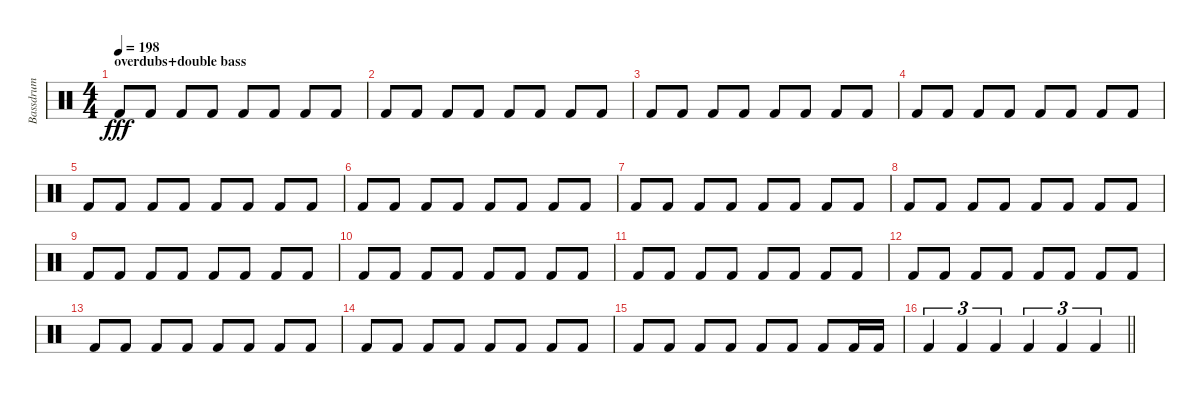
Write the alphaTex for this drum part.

\track ("Bassdrum" "Bassdrum") {instrument percussion}
\staff {score}
\articulation defaults
\ts (4 4)
\section ("" "overdubs+double bass")
\tempo 198
\clef neutral
\ks c "Kick (hit) 2".8{dy fff} "Kick (hit) 2".8 "Kick (hit) 2".8 "Kick (hit) 2".8 "Kick (hit) 2".8 "Kick (hit) 2".8 "Kick (hit) 2".8 "Kick (hit) 2".8
|
"Kick (hit) 2".8 "Kick (hit) 2".8 "Kick (hit) 2".8 "Kick (hit) 2".8 "Kick (hit) 2".8 "Kick (hit) 2".8 "Kick (hit) 2".8 "Kick (hit) 2".8 |
"Kick (hit) 2".8 "Kick (hit) 2".8 "Kick (hit) 2".8 "Kick (hit) 2".8 "Kick (hit) 2".8 "Kick (hit) 2".8 "Kick (hit) 2".8 "Kick (hit) 2".8 |
"Kick (hit) 2".8 "Kick (hit) 2".8 "Kick (hit) 2".8 "Kick (hit) 2".8 "Kick (hit) 2".8 "Kick (hit) 2".8 "Kick (hit) 2".8 "Kick (hit) 2".8 |
"Kick (hit) 2".8 "Kick (hit) 2".8 "Kick (hit) 2".8 "Kick (hit) 2".8 "Kick (hit) 2".8 "Kick (hit) 2".8 "Kick (hit) 2".8 "Kick (hit) 2".8 |
"Kick (hit) 2".8 "Kick (hit) 2".8 "Kick (hit) 2".8 "Kick (hit) 2".8 "Kick (hit) 2".8 "Kick (hit) 2".8 "Kick (hit) 2".8 "Kick (hit) 2".8 |
"Kick (hit) 2".8 "Kick (hit) 2".8 "Kick (hit) 2".8 "Kick (hit) 2".8 "Kick (hit) 2".8 "Kick (hit) 2".8 "Kick (hit) 2".8 "Kick (hit) 2".8 |
"Kick (hit) 2".8 "Kick (hit) 2".8 "Kick (hit) 2".8 "Kick (hit) 2".8 "Kick (hit) 2".8 "Kick (hit) 2".8 "Kick (hit) 2".8 "Kick (hit) 2".8 |
"Kick (hit) 2".8 "Kick (hit) 2".8 "Kick (hit) 2".8 "Kick (hit) 2".8 "Kick (hit) 2".8 "Kick (hit) 2".8 "Kick (hit) 2".8 "Kick (hit) 2".8 |
"Kick (hit) 2".8 "Kick (hit) 2".8 "Kick (hit) 2".8 "Kick (hit) 2".8 "Kick (hit) 2".8 "Kick (hit) 2".8 "Kick (hit) 2".8 "Kick (hit) 2".8 |
"Kick (hit) 2".8 "Kick (hit) 2".8 "Kick (hit) 2".8 "Kick (hit) 2".8 "Kick (hit) 2".8 "Kick (hit) 2".8 "Kick (hit) 2".8 "Kick (hit) 2".8 |
"Kick (hit) 2".8 "Kick (hit) 2".8 "Kick (hit) 2".8 "Kick (hit) 2".8 "Kick (hit) 2".8 "Kick (hit) 2".8 "Kick (hit) 2".8 "Kick (hit) 2".8 |
"Kick (hit) 2".8 "Kick (hit) 2".8 "Kick (hit) 2".8 "Kick (hit) 2".8 "Kick (hit) 2".8 "Kick (hit) 2".8 "Kick (hit) 2".8 "Kick (hit) 2".8 |
"Kick (hit) 2".8 "Kick (hit) 2".8 "Kick (hit) 2".8 "Kick (hit) 2".8 "Kick (hit) 2".8 "Kick (hit) 2".8 "Kick (hit) 2".8 "Kick (hit) 2".8 |
"Kick (hit) 2".8 "Kick (hit) 2".8 "Kick (hit) 2".8 "Kick (hit) 2".8 "Kick (hit) 2".8 "Kick (hit) 2".8 "Kick (hit) 2".8 "Kick (hit) 2".16 "Kick (hit) 2".16 |
\barLineRight lightlight "Kick (hit) 2".4{tu (3 2)} "Kick (hit) 2".4{tu (3 2)} "Kick (hit) 2".4{tu (3 2)} "Kick (hit) 2".4{tu (3 2)} "Kick (hit) 2".4{tu (3 2)} "Kick (hit) 2".4{tu (3 2)}
